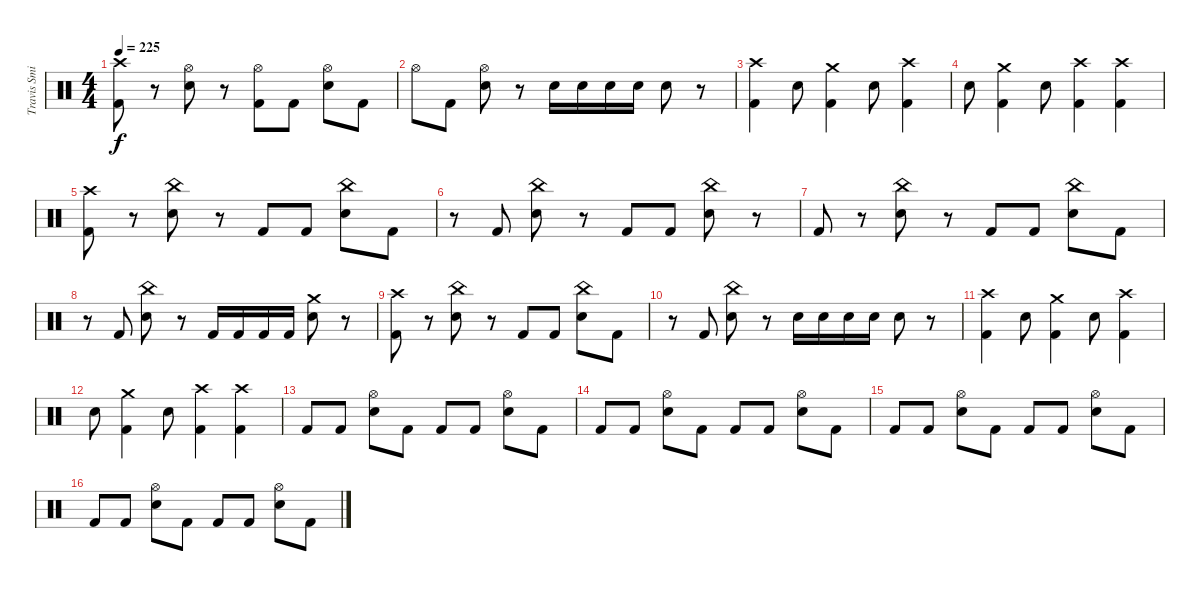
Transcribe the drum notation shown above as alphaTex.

\track ("Travis Smith" "Travis Smi") {instrument percussion}
\staff {score}
\articulation defaults
\ts (4 4)
\tempo 225
\clef neutral
\ks c
("Crash high (hit)" "Kick (hit) 2").8{dy f} r.8 ("Hi-Hat (open)" "Electric Snare (hit)").8 r.8 ("Hi-Hat (open)" "Kick (hit) 2").8 "Kick (hit) 2".8 ("Hi-Hat (open)" "Electric Snare (hit)").8 "Kick (hit) 2".8 |
"Hi-Hat (open)".8 "Kick (hit) 2".8 ("Hi-Hat (open)" "Electric Snare (hit)").8 r.8 "Electric Snare (hit)".16 "Electric Snare (hit)".16 "Electric Snare (hit)".16 "Electric Snare (hit)".16 "Electric Snare (hit)".8 r.8 |
("Crash high (hit)" "Kick (hit) 2").4 "Electric Snare (hit)".8 ("Crash medium (hit)" "Kick (hit) 2").4 "Electric Snare (hit)".8 ("Crash high (hit)" "Kick (hit) 2").4 |
"Electric Snare (hit)".8 ("Crash medium (hit)" "Kick (hit) 2").4 "Electric Snare (hit)".8 ("Crash high (hit)" "Kick (hit) 2").4 ("Crash high (hit)" "Kick (hit) 2").4 |
("Crash high (hit)" "Kick (hit) 2").8 r.8 ("China (hit)" "Electric Snare (hit)").8 r.8 "Kick (hit) 2".8 "Kick (hit) 2".8 ("China (hit)" "Electric Snare (hit)").8 "Kick (hit) 2".8 |
r.8 "Kick (hit) 2".8 ("China (hit)" "Electric Snare (hit)").8 r.8 "Kick (hit) 2".8 "Kick (hit) 2".8 ("China (hit)" "Electric Snare (hit)").8 r.8 |
"Kick (hit) 2".8 r.8 ("China (hit)" "Electric Snare (hit)").8 r.8 "Kick (hit) 2".8 "Kick (hit) 2".8 ("China (hit)" "Electric Snare (hit)").8 "Kick (hit) 2".8 |
r.8 "Kick (hit) 2".8 ("China (hit)" "Electric Snare (hit)").8 r.8 "Kick (hit) 2".16 "Kick (hit) 2".16 "Kick (hit) 2".16 "Kick (hit) 2".16 ("Crash medium (hit)" "Electric Snare (hit)").8 r.8 |
("Crash high (hit)" "Kick (hit) 2").8 r.8 ("China (hit)" "Electric Snare (hit)").8 r.8 "Kick (hit) 2".8 "Kick (hit) 2".8 ("China (hit)" "Electric Snare (hit)").8 "Kick (hit) 2".8 |
r.8 "Kick (hit) 2".8 ("China (hit)" "Electric Snare (hit)").8 r.8 "Electric Snare (hit)".16 "Electric Snare (hit)".16 "Electric Snare (hit)".16 "Electric Snare (hit)".16 "Electric Snare (hit)".8 r.8 |
("Crash high (hit)" "Kick (hit) 2").4 "Electric Snare (hit)".8 ("Crash medium (hit)" "Kick (hit) 2").4 "Electric Snare (hit)".8 ("Crash high (hit)" "Kick (hit) 2").4 |
"Electric Snare (hit)".8 ("Crash medium (hit)" "Kick (hit) 2").4 "Electric Snare (hit)".8 ("Crash high (hit)" "Kick (hit) 2").4 ("Crash high (hit)" "Kick (hit) 2").4 |
"Kick (hit) 2".8 "Kick (hit) 2".8 ("Hi-Hat (open)" "Electric Snare (hit)").8 "Kick (hit) 2".8 "Kick (hit) 2".8 "Kick (hit) 2".8 ("Hi-Hat (open)" "Electric Snare (hit)").8 "Kick (hit) 2".8 |
"Kick (hit) 2".8 "Kick (hit) 2".8 ("Hi-Hat (open)" "Electric Snare (hit)").8 "Kick (hit) 2".8 "Kick (hit) 2".8 "Kick (hit) 2".8 ("Hi-Hat (open)" "Electric Snare (hit)").8 "Kick (hit) 2".8 |
"Kick (hit) 2".8 "Kick (hit) 2".8 ("Hi-Hat (open)" "Electric Snare (hit)").8 "Kick (hit) 2".8 "Kick (hit) 2".8 "Kick (hit) 2".8 ("Hi-Hat (open)" "Electric Snare (hit)").8 "Kick (hit) 2".8 |
"Kick (hit) 2".8 "Kick (hit) 2".8 ("Hi-Hat (open)" "Electric Snare (hit)").8 "Kick (hit) 2".8 "Kick (hit) 2".8 "Kick (hit) 2".8 ("Hi-Hat (open)" "Electric Snare (hit)").8 "Kick (hit) 2".8
